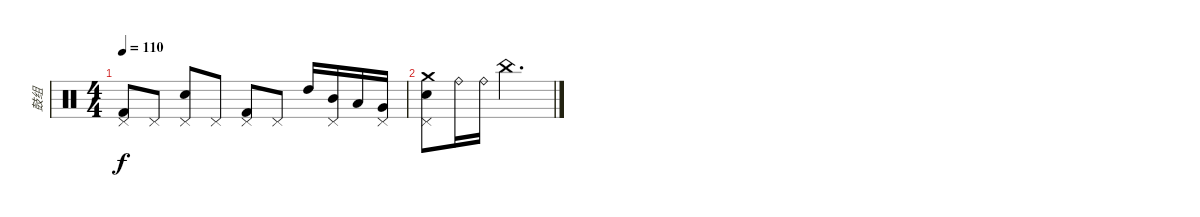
\track ("鼓组" "鼓组") {instrument percussion}
\staff {score}
\articulation defaults
\ts (4 4)
\tempo 110
\clef neutral
\ks c
("Kick (hit) 2" "Pedal Hi-Hat (hit)").8{dy f} "Pedal Hi-Hat (hit)".8 ("Electric Snare (hit)" "Pedal Hi-Hat (hit)").8 "Pedal Hi-Hat (hit)".8 ("Kick (hit) 2" "Pedal Hi-Hat (hit)").8 "Pedal Hi-Hat (hit)".8 "High Tom (hit)".16 ("Mid Tom (hit)" "Pedal Hi-Hat (hit)").16 "Low Tom (hit)".16 ("Very Low Tom (hit)" "Pedal Hi-Hat (hit)").16 |
("Crash medium (hit)" "Electric Snare (hit)" "Pedal Hi-Hat (hit)").8 "Ride (bell)".16 "Ride (bell)".16 "China (hit)".2{d}
